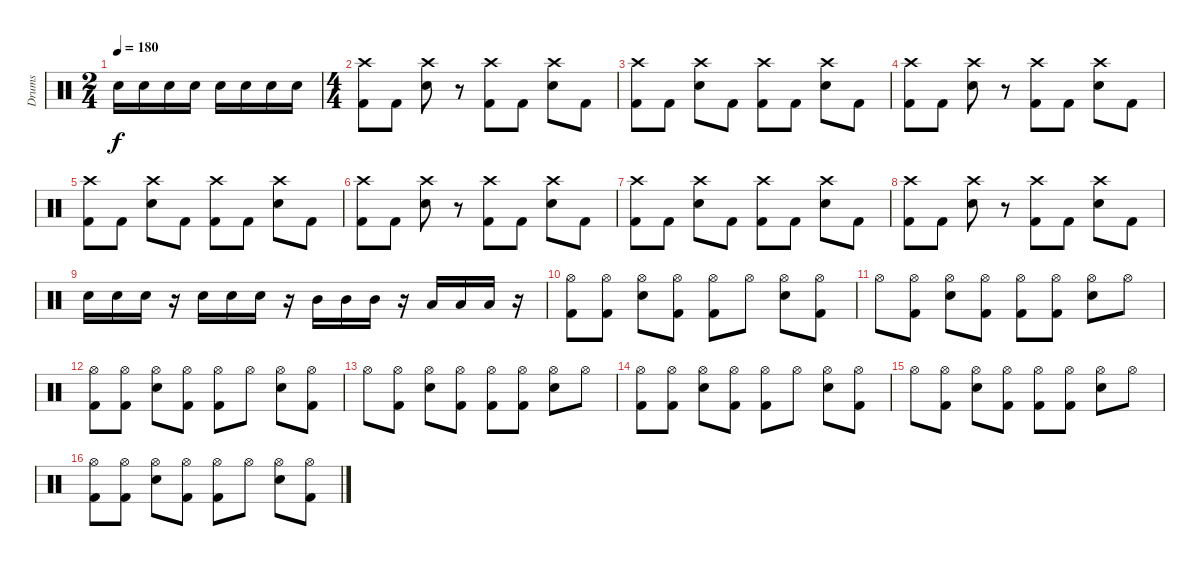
\track ("Drums" "Drums") {instrument percussion}
\staff {score}
\articulation defaults
\ts (2 4)
\tempo 180
\clef neutral
\ks c "Electric Snare (hit)".16{dy f} "Electric Snare (hit)".16 "Electric Snare (hit)".16 "Electric Snare (hit)".16 "Electric Snare (hit)".16 "Electric Snare (hit)".16 "Electric Snare (hit)".16 "Electric Snare (hit)".16
|
\ts (4 4)
("Crash high (hit)" "Kick (hit) 2").8 "Kick (hit) 2".8 ("Crash high (hit)" "Electric Snare (hit)").8 r.8 ("Crash high (hit)" "Kick (hit) 2").8 "Kick (hit) 2".8 ("Crash high (hit)" "Electric Snare (hit)").8 "Kick (hit) 2".8 |
("Crash high (hit)" "Kick (hit) 2").8 "Kick (hit) 2".8 ("Crash high (hit)" "Electric Snare (hit)").8 "Kick (hit) 2".8 ("Crash high (hit)" "Kick (hit) 2").8 "Kick (hit) 2".8 ("Crash high (hit)" "Electric Snare (hit)").8 "Kick (hit) 2".8 |
("Crash high (hit)" "Kick (hit) 2").8 "Kick (hit) 2".8 ("Crash high (hit)" "Electric Snare (hit)").8 r.8 ("Crash high (hit)" "Kick (hit) 2").8 "Kick (hit) 2".8 ("Crash high (hit)" "Electric Snare (hit)").8 "Kick (hit) 2".8 |
("Crash high (hit)" "Kick (hit) 2").8 "Kick (hit) 2".8 ("Crash high (hit)" "Electric Snare (hit)").8 "Kick (hit) 2".8 ("Crash high (hit)" "Kick (hit) 2").8 "Kick (hit) 2".8 ("Crash high (hit)" "Electric Snare (hit)").8 "Kick (hit) 2".8 |
("Crash high (hit)" "Kick (hit) 2").8 "Kick (hit) 2".8 ("Crash high (hit)" "Electric Snare (hit)").8 r.8 ("Crash high (hit)" "Kick (hit) 2").8 "Kick (hit) 2".8 ("Crash high (hit)" "Electric Snare (hit)").8 "Kick (hit) 2".8 |
("Crash high (hit)" "Kick (hit) 2").8 "Kick (hit) 2".8 ("Crash high (hit)" "Electric Snare (hit)").8 "Kick (hit) 2".8 ("Crash high (hit)" "Kick (hit) 2").8 "Kick (hit) 2".8 ("Crash high (hit)" "Electric Snare (hit)").8 "Kick (hit) 2".8 |
("Crash high (hit)" "Kick (hit) 2").8 "Kick (hit) 2".8 ("Crash high (hit)" "Electric Snare (hit)").8 r.8 ("Crash high (hit)" "Kick (hit) 2").8 "Kick (hit) 2".8 ("Crash high (hit)" "Electric Snare (hit)").8 "Kick (hit) 2".8 |
"Electric Snare (hit)".16 "Electric Snare (hit)".16 "Electric Snare (hit)".16 r.16 "Electric Snare (hit)".16 "Electric Snare (hit)".16 "Electric Snare (hit)".16 r.16 "Mid Tom (hit)".16 "Mid Tom (hit)".16 "Mid Tom (hit)".16 r.16 "Low Tom (hit)".16 "Low Tom (hit)".16 "Low Tom (hit)".16 r.16 |
("Hi-Hat (open)" "Kick (hit) 2").8 ("Hi-Hat (open)" "Kick (hit) 2").8 ("Hi-Hat (open)" "Electric Snare (hit)").8 ("Hi-Hat (open)" "Kick (hit) 2").8 ("Hi-Hat (open)" "Kick (hit) 2").8 "Hi-Hat (open)".8 ("Hi-Hat (open)" "Electric Snare (hit)").8 ("Hi-Hat (open)" "Kick (hit) 2").8 |
"Hi-Hat (open)".8 ("Hi-Hat (open)" "Kick (hit) 2").8 ("Hi-Hat (open)" "Electric Snare (hit)").8 ("Hi-Hat (open)" "Kick (hit) 2").8 ("Hi-Hat (open)" "Kick (hit) 2").8 ("Hi-Hat (open)" "Kick (hit) 2").8 ("Hi-Hat (open)" "Electric Snare (hit)").8 "Hi-Hat (open)".8 |
("Hi-Hat (open)" "Kick (hit) 2").8 ("Hi-Hat (open)" "Kick (hit) 2").8 ("Hi-Hat (open)" "Electric Snare (hit)").8 ("Hi-Hat (open)" "Kick (hit) 2").8 ("Hi-Hat (open)" "Kick (hit) 2").8 "Hi-Hat (open)".8 ("Hi-Hat (open)" "Electric Snare (hit)").8 ("Hi-Hat (open)" "Kick (hit) 2").8 |
"Hi-Hat (open)".8 ("Hi-Hat (open)" "Kick (hit) 2").8 ("Hi-Hat (open)" "Electric Snare (hit)").8 ("Hi-Hat (open)" "Kick (hit) 2").8 ("Hi-Hat (open)" "Kick (hit) 2").8 ("Hi-Hat (open)" "Kick (hit) 2").8 ("Hi-Hat (open)" "Electric Snare (hit)").8 "Hi-Hat (open)".8 |
("Hi-Hat (open)" "Kick (hit) 2").8 ("Hi-Hat (open)" "Kick (hit) 2").8 ("Hi-Hat (open)" "Electric Snare (hit)").8 ("Hi-Hat (open)" "Kick (hit) 2").8 ("Hi-Hat (open)" "Kick (hit) 2").8 "Hi-Hat (open)".8 ("Hi-Hat (open)" "Electric Snare (hit)").8 ("Hi-Hat (open)" "Kick (hit) 2").8 |
"Hi-Hat (open)".8 ("Hi-Hat (open)" "Kick (hit) 2").8 ("Hi-Hat (open)" "Electric Snare (hit)").8 ("Hi-Hat (open)" "Kick (hit) 2").8 ("Hi-Hat (open)" "Kick (hit) 2").8 ("Hi-Hat (open)" "Kick (hit) 2").8 ("Hi-Hat (open)" "Electric Snare (hit)").8 "Hi-Hat (open)".8 |
("Hi-Hat (open)" "Kick (hit) 2").8 ("Hi-Hat (open)" "Kick (hit) 2").8 ("Hi-Hat (open)" "Electric Snare (hit)").8 ("Hi-Hat (open)" "Kick (hit) 2").8 ("Hi-Hat (open)" "Kick (hit) 2").8 "Hi-Hat (open)".8 ("Hi-Hat (open)" "Electric Snare (hit)").8 ("Hi-Hat (open)" "Kick (hit) 2").8
